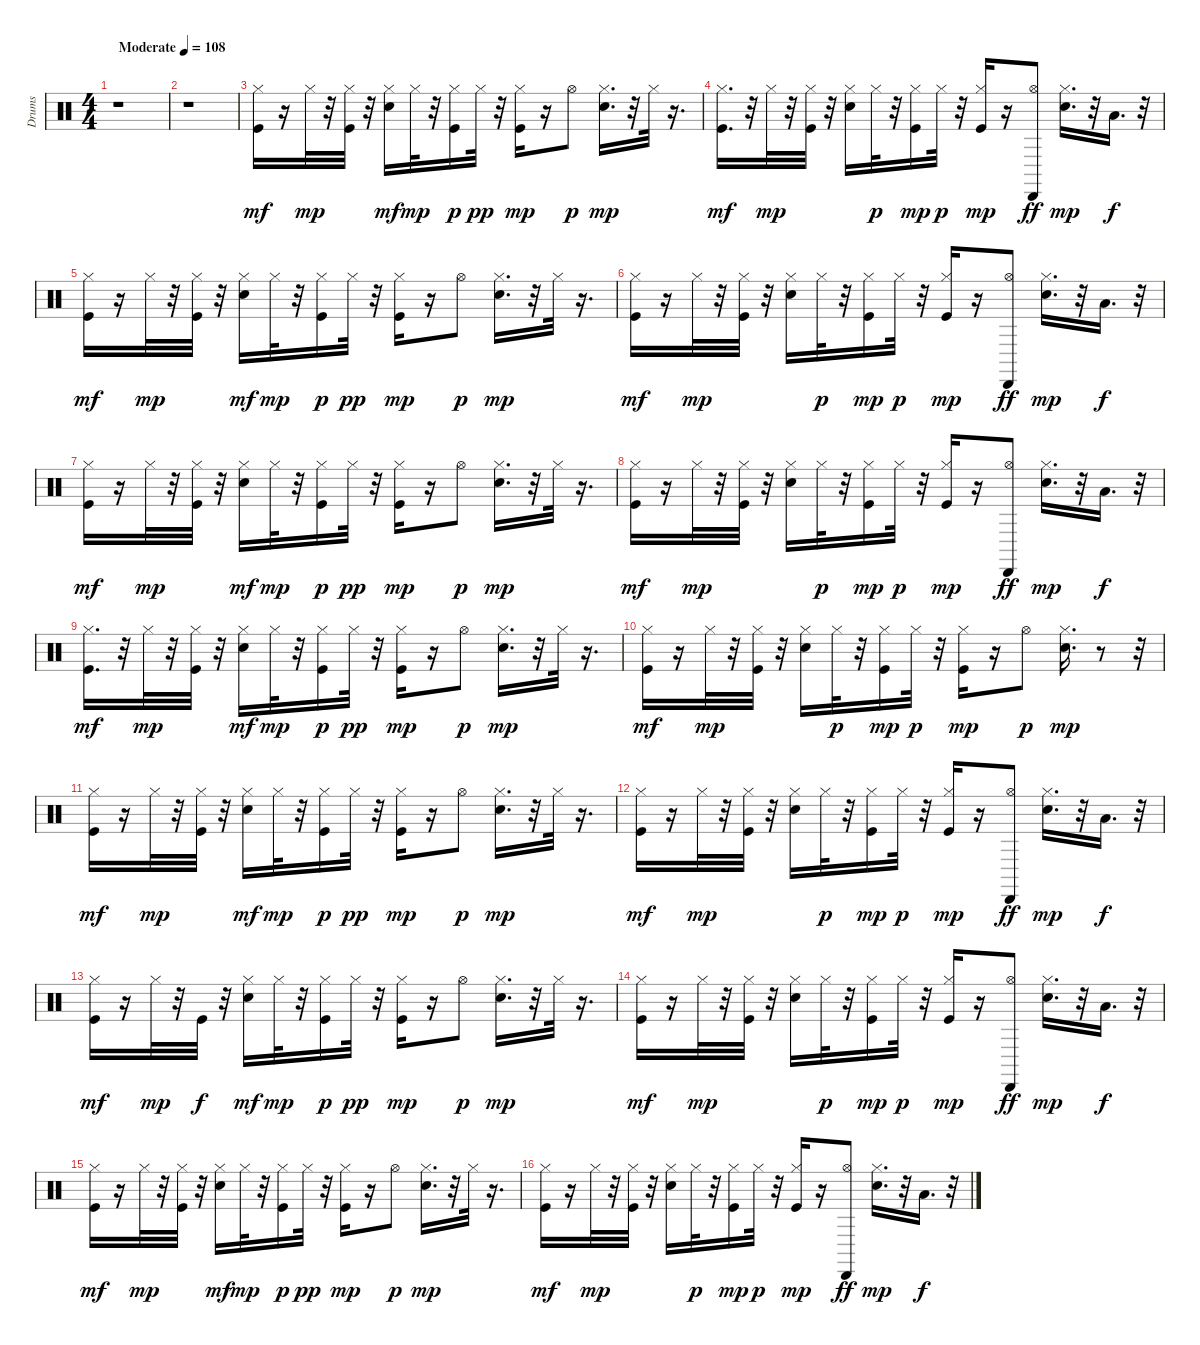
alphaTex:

\track ("Drums" "Drums") {instrument percussion}
\staff {score}
\articulation defaults
\ts (4 4)
\tempo (108 "Moderate")
\clef neutral
\ks c
r.1{dy mf} |
r.1 |
("Hi-Hat (closed)" "Kick (hit)").16 r.16 "Hi-Hat (closed)".32{dy mp} r.32 ("Hi-Hat (closed)" "Kick (hit)").32 r.32 ("Hi-Hat (closed)" "Snare (hit) 2").16{dy mf} "Hi-Hat (closed)".32{dy mp} r.32 ("Hi-Hat (closed)" "Kick (hit)").16{dy p} "Hi-Hat (closed)".32{dy pp} r.32 ("Hi-Hat (closed)" "Kick (hit)").16{dy mp} r.16 "Hi-Hat (open)".8{dy p} ("Hi-Hat (closed)" "Snare (hit) 2").16{d dy mp} r.32 "Hi-Hat (closed)".32 r.16{d} |
("Hi-Hat (closed)" "Kick (hit)").16{d dy mf} r.32 "Hi-Hat (closed)".32{dy mp} r.32 ("Hi-Hat (closed)" "Kick (hit)").32 r.32 ("Hi-Hat (closed)" "Snare (hit) 2").16 "Hi-Hat (closed)".32{dy p} r.32 ("Hi-Hat (closed)" "Kick (hit)").16{dy mp} "Hi-Hat (closed)".32{dy p} r.32 ("Hi-Hat (closed)" "Kick (hit)").16{dy mp} r.16 ("Hi-Hat (open)" "Cabasa (hit)").8{dy ff} ("Hi-Hat (closed)" "Snare (hit) 2").16{d dy mp} r.32 "Low Floor Tom (hit)".16{d dy f} r.32 |
("Hi-Hat (closed)" "Kick (hit)").16{dy mf} r.16 "Hi-Hat (closed)".32{dy mp} r.32 ("Hi-Hat (closed)" "Kick (hit)").32 r.32 ("Hi-Hat (closed)" "Snare (hit) 2").16{dy mf} "Hi-Hat (closed)".32{dy mp} r.32 ("Hi-Hat (closed)" "Kick (hit)").16{dy p} "Hi-Hat (closed)".32{dy pp} r.32 ("Hi-Hat (closed)" "Kick (hit)").16{dy mp} r.16 "Hi-Hat (open)".8{dy p} ("Hi-Hat (closed)" "Snare (hit) 2").16{d dy mp} r.32 "Hi-Hat (closed)".32 r.16{d} |
("Hi-Hat (closed)" "Kick (hit)").16{dy mf} r.16 "Hi-Hat (closed)".32{dy mp} r.32 ("Hi-Hat (closed)" "Kick (hit)").32 r.32 ("Hi-Hat (closed)" "Snare (hit) 2").16 "Hi-Hat (closed)".32{dy p} r.32 ("Hi-Hat (closed)" "Kick (hit)").16{dy mp} "Hi-Hat (closed)".32{dy p} r.32 ("Hi-Hat (closed)" "Kick (hit)").16{dy mp} r.16 ("Hi-Hat (open)" "Cabasa (hit)").8{dy ff} ("Hi-Hat (closed)" "Snare (hit) 2").16{d dy mp} r.32 "Low Floor Tom (hit)".16{d dy f} r.32 |
("Hi-Hat (closed)" "Kick (hit)").16{dy mf} r.16 "Hi-Hat (closed)".32{dy mp} r.32 ("Hi-Hat (closed)" "Kick (hit)").32 r.32 ("Hi-Hat (closed)" "Snare (hit) 2").16{dy mf} "Hi-Hat (closed)".32{dy mp} r.32 ("Hi-Hat (closed)" "Kick (hit)").16{dy p} "Hi-Hat (closed)".32{dy pp} r.32 ("Hi-Hat (closed)" "Kick (hit)").16{dy mp} r.16 "Hi-Hat (open)".8{dy p} ("Hi-Hat (closed)" "Snare (hit) 2").16{d dy mp} r.32 "Hi-Hat (closed)".32 r.16{d} |
("Hi-Hat (closed)" "Kick (hit)").16{dy mf} r.16 "Hi-Hat (closed)".32{dy mp} r.32 ("Hi-Hat (closed)" "Kick (hit)").32 r.32 ("Hi-Hat (closed)" "Snare (hit) 2").16 "Hi-Hat (closed)".32{dy p} r.32 ("Hi-Hat (closed)" "Kick (hit)").16{dy mp} "Hi-Hat (closed)".32{dy p} r.32 ("Hi-Hat (closed)" "Kick (hit)").16{dy mp} r.16 ("Hi-Hat (open)" "Cabasa (hit)").8{dy ff} ("Hi-Hat (closed)" "Snare (hit) 2").16{d dy mp} r.32 "Low Floor Tom (hit)".16{d dy f} r.32 |
("Hi-Hat (closed)" "Kick (hit)").16{d dy mf} r.32 "Hi-Hat (closed)".32{dy mp} r.32 ("Hi-Hat (closed)" "Kick (hit)").32 r.32 ("Hi-Hat (closed)" "Snare (hit) 2").16{dy mf} "Hi-Hat (closed)".32{dy mp} r.32 ("Hi-Hat (closed)" "Kick (hit)").16{dy p} "Hi-Hat (closed)".32{dy pp} r.32 ("Hi-Hat (closed)" "Kick (hit)").16{dy mp} r.16 "Hi-Hat (open)".8{dy p} ("Hi-Hat (closed)" "Snare (hit) 2").16{d dy mp} r.32 "Hi-Hat (closed)".32 r.16{d} |
("Hi-Hat (closed)" "Kick (hit)").16{dy mf} r.16 "Hi-Hat (closed)".32{dy mp} r.32 ("Hi-Hat (closed)" "Kick (hit)").32 r.32 ("Hi-Hat (closed)" "Snare (hit) 2").16 "Hi-Hat (closed)".32{dy p} r.32 ("Hi-Hat (closed)" "Kick (hit)").16{dy mp} "Hi-Hat (closed)".32{dy p} r.32 ("Hi-Hat (closed)" "Kick (hit)").16{dy mp} r.16 "Hi-Hat (open)".8{dy p} ("Hi-Hat (closed)" "Snare (hit) 2").16{d dy mp} r.8 r.32 |
("Hi-Hat (closed)" "Kick (hit)").16{dy mf} r.16 "Hi-Hat (closed)".32{dy mp} r.32 ("Hi-Hat (closed)" "Kick (hit)").32 r.32 ("Hi-Hat (closed)" "Snare (hit) 2").16{dy mf} "Hi-Hat (closed)".32{dy mp} r.32 ("Hi-Hat (closed)" "Kick (hit)").16{dy p} "Hi-Hat (closed)".32{dy pp} r.32 ("Hi-Hat (closed)" "Kick (hit)").16{dy mp} r.16 "Hi-Hat (open)".8{dy p} ("Hi-Hat (closed)" "Snare (hit) 2").16{d dy mp} r.32 "Hi-Hat (closed)".32 r.16{d} |
("Hi-Hat (closed)" "Kick (hit)").16{dy mf} r.16 "Hi-Hat (closed)".32{dy mp} r.32 ("Hi-Hat (closed)" "Kick (hit)").32 r.32 ("Hi-Hat (closed)" "Snare (hit) 2").16 "Hi-Hat (closed)".32{dy p} r.32 ("Hi-Hat (closed)" "Kick (hit)").16{dy mp} "Hi-Hat (closed)".32{dy p} r.32 ("Hi-Hat (closed)" "Kick (hit)").16{dy mp} r.16 ("Hi-Hat (open)" "Cabasa (hit)").8{dy ff} ("Hi-Hat (closed)" "Snare (hit) 2").16{d dy mp} r.32 "Low Floor Tom (hit)".16{d dy f} r.32 |
("Hi-Hat (closed)" "Kick (hit)").16{dy mf} r.16 "Hi-Hat (closed)".32{dy mp} r.32 "Kick (hit)".32{dy f} r.32 ("Hi-Hat (closed)" "Snare (hit) 2").16{dy mf} "Hi-Hat (closed)".32{dy mp} r.32 ("Hi-Hat (closed)" "Kick (hit)").16{dy p} "Hi-Hat (closed)".32{dy pp} r.32 ("Hi-Hat (closed)" "Kick (hit)").16{dy mp} r.16 "Hi-Hat (open)".8{dy p} ("Hi-Hat (closed)" "Snare (hit) 2").16{d dy mp} r.32 "Hi-Hat (closed)".32 r.16{d} |
("Hi-Hat (closed)" "Kick (hit)").16{dy mf} r.16 "Hi-Hat (closed)".32{dy mp} r.32 ("Hi-Hat (closed)" "Kick (hit)").32 r.32 ("Hi-Hat (closed)" "Snare (hit) 2").16 "Hi-Hat (closed)".32{dy p} r.32 ("Hi-Hat (closed)" "Kick (hit)").16{dy mp} "Hi-Hat (closed)".32{dy p} r.32 ("Hi-Hat (closed)" "Kick (hit)").16{dy mp} r.16 ("Hi-Hat (open)" "Cabasa (hit)").8{dy ff} ("Hi-Hat (closed)" "Snare (hit) 2").16{d dy mp} r.32 "Low Floor Tom (hit)".16{d dy f} r.32 |
("Hi-Hat (closed)" "Kick (hit)").16{dy mf} r.16 "Hi-Hat (closed)".32{dy mp} r.32 ("Hi-Hat (closed)" "Kick (hit)").32 r.32 ("Hi-Hat (closed)" "Snare (hit) 2").16{dy mf} "Hi-Hat (closed)".32{dy mp} r.32 ("Hi-Hat (closed)" "Kick (hit)").16{dy p} "Hi-Hat (closed)".32{dy pp} r.32 ("Hi-Hat (closed)" "Kick (hit)").16{dy mp} r.16 "Hi-Hat (open)".8{dy p} ("Hi-Hat (closed)" "Snare (hit) 2").16{d dy mp} r.32 "Hi-Hat (closed)".32 r.16{d} |
("Hi-Hat (closed)" "Kick (hit)").16{dy mf} r.16 "Hi-Hat (closed)".32{dy mp} r.32 ("Hi-Hat (closed)" "Kick (hit)").32 r.32 ("Hi-Hat (closed)" "Snare (hit) 2").16 "Hi-Hat (closed)".32{dy p} r.32 ("Hi-Hat (closed)" "Kick (hit)").16{dy mp} "Hi-Hat (closed)".32{dy p} r.32 ("Hi-Hat (closed)" "Kick (hit)").16{dy mp} r.16 ("Hi-Hat (open)" "Cabasa (hit)").8{dy ff} ("Hi-Hat (closed)" "Snare (hit) 2").16{d dy mp} r.32 "Low Floor Tom (hit)".16{d dy f} r.32
